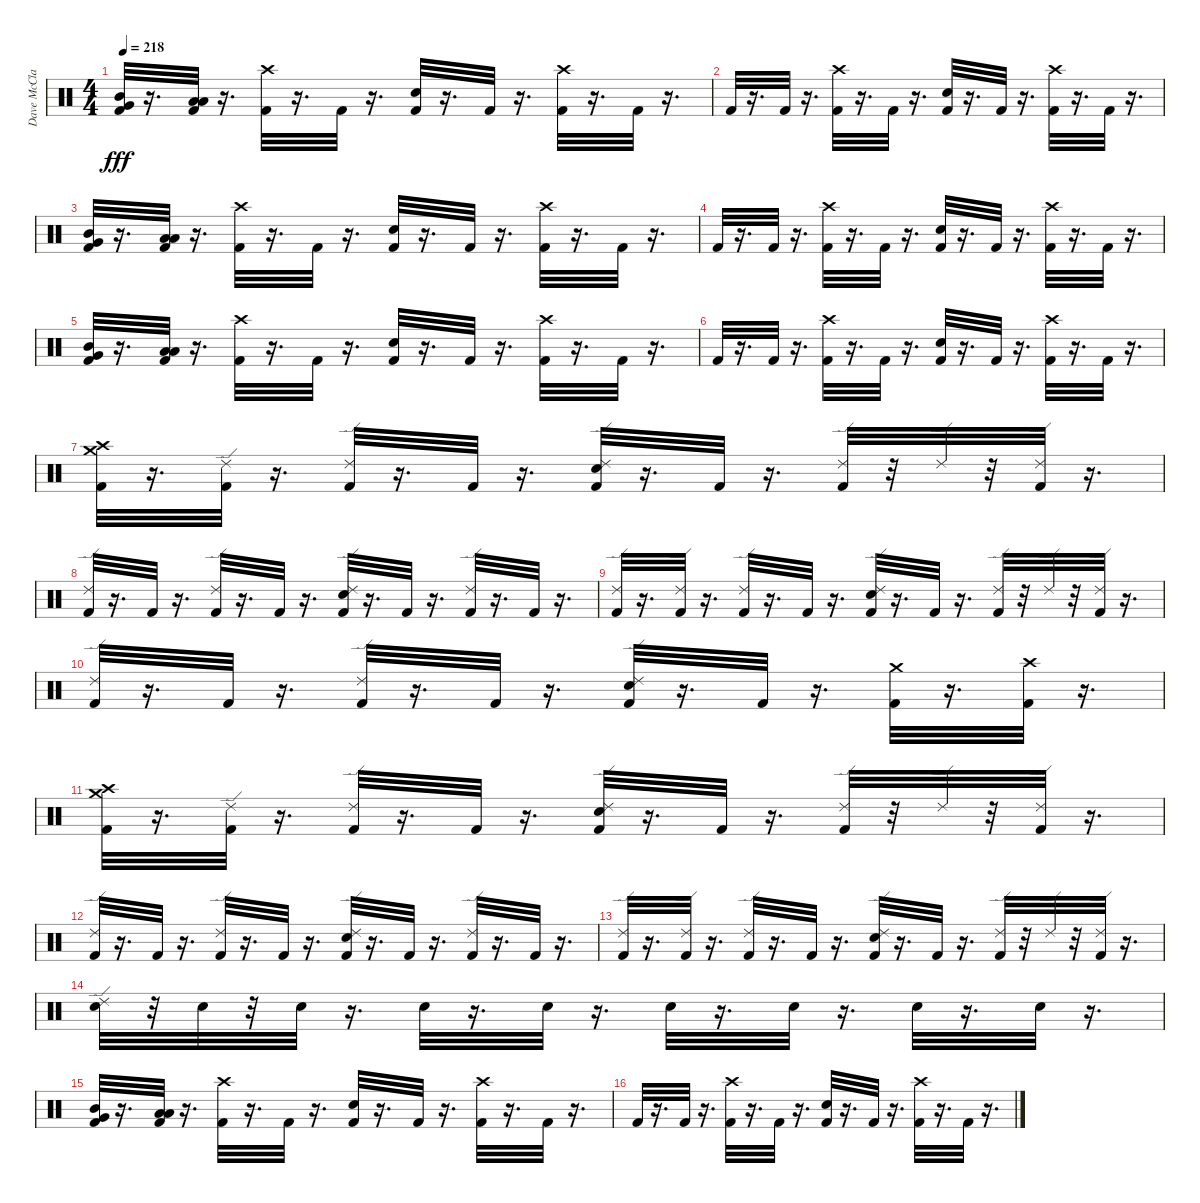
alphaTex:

\track ("Dave McClain" "Dave McCla") {instrument percussion}
\staff {score}
\articulation defaults
\ts (4 4)
\tempo 218
\clef neutral
\ks c
("Very Low Tom (hit)" "Mid Tom (hit)" "Kick (hit) 2").32{dy fff} r.16{d} ("Low Tom (hit)" "Low Floor Tom (hit)" "Kick (hit) 2").32 r.16{d} ("Kick (hit) 2" "Crash high (hit)").32 r.16{d} "Kick (hit) 2".32 r.16{d} ("Kick (hit) 2" "Snare (hit) 2").32 r.16{d} "Kick (hit) 2".32 r.16{d} ("Kick (hit) 2" "Crash high (hit)").32 r.16{d} "Kick (hit) 2".32 r.16{d} |
"Kick (hit) 2".32 r.16{d} "Kick (hit) 2".32 r.16{d} ("Kick (hit) 2" "Crash high (hit)").32 r.16{d} "Kick (hit) 2".32 r.16{d} ("Kick (hit) 2" "Snare (hit) 2").32 r.16{d} "Kick (hit) 2".32 r.16{d} ("Kick (hit) 2" "Crash high (hit)").32 r.16{d} "Kick (hit) 2".32 r.16{d} |
("Very Low Tom (hit)" "Mid Tom (hit)" "Kick (hit) 2").32 r.16{d} ("Kick (hit) 2" "Low Tom (hit)" "Low Floor Tom (hit)").32 r.16{d} ("Kick (hit) 2" "Crash high (hit)").32 r.16{d} "Kick (hit) 2".32 r.16{d} ("Kick (hit) 2" "Snare (hit) 2").32 r.16{d} "Kick (hit) 2".32 r.16{d} ("Kick (hit) 2" "Crash high (hit)").32 r.16{d} "Kick (hit) 2".32 r.16{d} |
"Kick (hit) 2".32 r.16{d} "Kick (hit) 2".32 r.16{d} ("Kick (hit) 2" "Crash high (hit)").32 r.16{d} "Kick (hit) 2".32 r.16{d} ("Kick (hit) 2" "Snare (hit) 2").32 r.16{d} "Kick (hit) 2".32 r.16{d} ("Kick (hit) 2" "Crash high (hit)").32 r.16{d} "Kick (hit) 2".32 r.16{d} |
("Very Low Tom (hit)" "Mid Tom (hit)" "Kick (hit) 2").32 r.16{d} ("Low Tom (hit)" "Low Floor Tom (hit)" "Kick (hit) 2").32 r.16{d} ("Kick (hit) 2" "Crash high (hit)").32 r.16{d} "Kick (hit) 2".32 r.16{d} ("Kick (hit) 2" "Snare (hit) 2").32 r.16{d} "Kick (hit) 2".32 r.16{d} ("Kick (hit) 2" "Crash high (hit)").32 r.16{d} "Kick (hit) 2".32 r.16{d} |
"Kick (hit) 2".32 r.16{d} "Kick (hit) 2".32 r.16{d} ("Kick (hit) 2" "Crash high (hit)").32 r.16{d} "Kick (hit) 2".32 r.16{d} ("Kick (hit) 2" "Snare (hit) 2").32 r.16{d} "Kick (hit) 2".32 r.16{d} ("Kick (hit) 2" "Crash high (hit)").32 r.16{d} "Kick (hit) 2".32 r.16{d} |
("Crash medium (hit)" "Crash high (hit)" "Kick (hit) 2").32 r.16{d} ("Ride (edge) 2" "Kick (hit) 2").32 r.16{d} ("Ride (edge) 2" "Kick (hit) 2").32 r.16{d} "Kick (hit) 2".32 r.16{d} ("Ride (edge) 2" "Snare (hit) 2" "Kick (hit) 2").32 r.16{d} "Kick (hit) 2".32 r.16{d} ("Ride (edge) 2" "Kick (hit) 2").32 r.32 "Ride (edge) 2".32 r.32 ("Ride (edge) 2" "Kick (hit) 2").32 r.16{d} |
("Ride (edge) 2" "Kick (hit) 2").32 r.16{d} "Kick (hit) 2".32 r.16{d} ("Ride (edge) 2" "Kick (hit) 2").32 r.16{d} "Kick (hit) 2".32 r.16{d} ("Ride (edge) 2" "Snare (hit) 2" "Kick (hit) 2").32 r.16{d} "Kick (hit) 2".32 r.16{d} ("Ride (edge) 2" "Kick (hit) 2").32 r.16{d} "Kick (hit) 2".32 r.16{d} |
("Ride (edge) 2" "Kick (hit) 2").32 r.16{d} ("Ride (edge) 2" "Kick (hit) 2").32 r.16{d} ("Ride (edge) 2" "Kick (hit) 2").32 r.16{d} "Kick (hit) 2".32 r.16{d} ("Ride (edge) 2" "Snare (hit) 2" "Kick (hit) 2").32 r.16{d} "Kick (hit) 2".32 r.16{d} ("Ride (edge) 2" "Kick (hit) 2").32 r.32 "Ride (edge) 2".32 r.32 ("Ride (edge) 2" "Kick (hit) 2").32 r.16{d} |
("Ride (edge) 2" "Kick (hit) 2").32 r.16{d} "Kick (hit) 2".32 r.16{d} ("Ride (edge) 2" "Kick (hit) 2").32 r.16{d} "Kick (hit) 2".32 r.16{d} ("Ride (edge) 2" "Snare (hit) 2" "Kick (hit) 2").32 r.16{d} "Kick (hit) 2".32 r.16{d} ("Crash medium (hit)" "Kick (hit) 2").32 r.16{d} ("Crash high (hit)" "Kick (hit) 2").32 r.16{d} |
("Crash medium (hit)" "Crash high (hit)" "Kick (hit) 2").32 r.16{d} ("Ride (edge) 2" "Kick (hit) 2").32 r.16{d} ("Ride (edge) 2" "Kick (hit) 2").32 r.16{d} "Kick (hit) 2".32 r.16{d} ("Ride (edge) 2" "Snare (hit) 2" "Kick (hit) 2").32 r.16{d} "Kick (hit) 2".32 r.16{d} ("Ride (edge) 2" "Kick (hit) 2").32 r.32 "Ride (edge) 2".32 r.32 ("Ride (edge) 2" "Kick (hit) 2").32 r.16{d} |
("Ride (edge) 2" "Kick (hit) 2").32 r.16{d} "Kick (hit) 2".32 r.16{d} ("Ride (edge) 2" "Kick (hit) 2").32 r.16{d} "Kick (hit) 2".32 r.16{d} ("Ride (edge) 2" "Snare (hit) 2" "Kick (hit) 2").32 r.16{d} "Kick (hit) 2".32 r.16{d} ("Ride (edge) 2" "Kick (hit) 2").32 r.16{d} "Kick (hit) 2".32 r.16{d} |
("Ride (edge) 2" "Kick (hit) 2").32 r.16{d} ("Ride (edge) 2" "Kick (hit) 2").32 r.16{d} ("Ride (edge) 2" "Kick (hit) 2").32 r.16{d} "Kick (hit) 2".32 r.16{d} ("Ride (edge) 2" "Snare (hit) 2" "Kick (hit) 2").32 r.16{d} "Kick (hit) 2".32 r.16{d} ("Ride (edge) 2" "Kick (hit) 2").32 r.32 "Ride (edge) 2".32 r.32 ("Ride (edge) 2" "Kick (hit) 2").32 r.16{d} |
("Snare (hit) 2" "Ride (edge) 2").32 r.32 "Snare (hit) 2".32 r.32 "Snare (hit) 2".32 r.16{d} "Snare (hit) 2".32 r.16{d} "Snare (hit) 2".32 r.16{d} "Snare (hit) 2".32 r.16{d} "Snare (hit) 2".32 r.16{d} "Snare (hit) 2".32 r.16{d} "Snare (hit) 2".32 r.16{d} |
("Very Low Tom (hit)" "Mid Tom (hit)" "Kick (hit) 2").32 r.16{d} ("Kick (hit) 2" "Low Tom (hit)" "Low Floor Tom (hit)").32 r.16{d} ("Kick (hit) 2" "Crash high (hit)").32 r.16{d} "Kick (hit) 2".32 r.16{d} ("Kick (hit) 2" "Snare (hit) 2").32 r.16{d} "Kick (hit) 2".32 r.16{d} ("Kick (hit) 2" "Crash high (hit)").32 r.16{d} "Kick (hit) 2".32 r.16{d} |
"Kick (hit) 2".32 r.16{d} "Kick (hit) 2".32 r.16{d} ("Kick (hit) 2" "Crash high (hit)").32 r.16{d} "Kick (hit) 2".32 r.16{d} ("Kick (hit) 2" "Snare (hit) 2").32 r.16{d} "Kick (hit) 2".32 r.16{d} ("Kick (hit) 2" "Crash high (hit)").32 r.16{d} "Kick (hit) 2".32 r.16{d}
